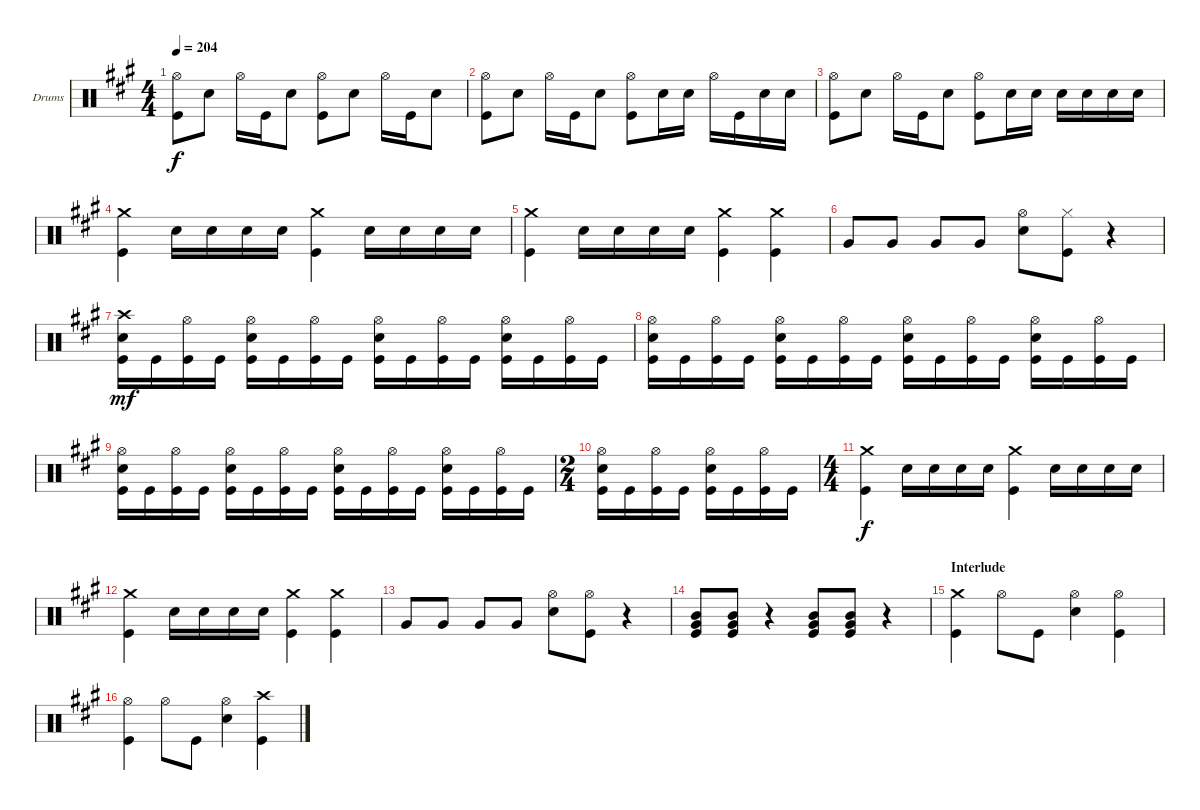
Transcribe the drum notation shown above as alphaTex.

\bracketExtendMode groupsimilarinstruments
\firstSystemTrackNameOrientation horizontal
\otherSystemsTrackNameOrientation horizontal
\track ("Drumkit" "Drums") {instrument percussion}
\staff {score}
\articulation defaults
\ts (4 4)
\tempo 204
\clef neutral
\ks a
("Hi-Hat (open)" "Kick (hit)").8{dy f} "Snare (hit) 2".8 "Hi-Hat (open)".16 "Kick (hit)".16 "Snare (hit) 2".8 ("Hi-Hat (open)" "Kick (hit)").8 "Snare (hit) 2".8 "Hi-Hat (open)".16 "Kick (hit)".16 "Snare (hit) 2".8 |
("Hi-Hat (open)" "Kick (hit)").8 "Snare (hit) 2".8 "Hi-Hat (open)".16 "Kick (hit)".16 "Snare (hit) 2".8 ("Hi-Hat (open)" "Kick (hit)").8 "Snare (hit) 2".16 "Snare (hit) 2".16 "Hi-Hat (open)".16 "Kick (hit)".16 "Snare (hit) 2".16 "Snare (hit) 2".16 |
("Hi-Hat (open)" "Kick (hit)").8 "Snare (hit) 2".8 "Hi-Hat (open)".16 "Kick (hit)".16 "Snare (hit) 2".8 ("Hi-Hat (open)" "Kick (hit)").8 "Snare (hit) 2".16 "Snare (hit) 2".16 "Snare (hit) 2".16 "Snare (hit) 2".16 "Snare (hit) 2".16 "Snare (hit) 2".16 |
("Crash medium (hit)" "Kick (hit)").4 "Snare (hit) 2".16 "Snare (hit) 2".16 "Snare (hit) 2".16 "Snare (hit) 2".16 ("Crash medium (hit)" "Kick (hit)").4 "Snare (hit) 2".16 "Snare (hit) 2".16 "Snare (hit) 2".16 "Snare (hit) 2".16 |
("Crash medium (hit)" "Kick (hit)").4 "Snare (hit) 2".16 "Snare (hit) 2".16 "Snare (hit) 2".16 "Snare (hit) 2".16 ("Crash medium (hit)" "Kick (hit)").4 ("Crash medium (hit)" "Kick (hit)").4 |
"Very Low Tom (hit)".8 "Very Low Tom (hit)".8 "Very Low Tom (hit)".8 "Very Low Tom (hit)".8 ("Hi-Hat (open)" "Snare (hit) 2").8 ("Hi-Hat (closed)" "Kick (hit)").8 r.4 |
("Kick (hit)" "Snare (hit) 2" "Crash high (hit)").16{dy mf} "Kick (hit)".16 ("Kick (hit)" "Hi-Hat (open)").16 "Kick (hit)".16 ("Kick (hit)" "Snare (hit) 2" "Hi-Hat (open)").16 "Kick (hit)".16 ("Kick (hit)" "Hi-Hat (open)").16 "Kick (hit)".16 ("Kick (hit)" "Snare (hit) 2" "Hi-Hat (open)").16 "Kick (hit)".16 ("Kick (hit)" "Hi-Hat (open)").16 "Kick (hit)".16 ("Kick (hit)" "Snare (hit) 2" "Hi-Hat (open)").16 "Kick (hit)".16 ("Kick (hit)" "Hi-Hat (open)").16 "Kick (hit)".16 |
("Kick (hit)" "Snare (hit) 2" "Hi-Hat (open)").16 "Kick (hit)".16 ("Kick (hit)" "Hi-Hat (open)").16 "Kick (hit)".16 ("Kick (hit)" "Snare (hit) 2" "Hi-Hat (open)").16 "Kick (hit)".16 ("Kick (hit)" "Hi-Hat (open)").16 "Kick (hit)".16 ("Kick (hit)" "Snare (hit) 2" "Hi-Hat (open)").16 "Kick (hit)".16 ("Kick (hit)" "Hi-Hat (open)").16 "Kick (hit)".16 ("Kick (hit)" "Snare (hit) 2" "Hi-Hat (open)").16 "Kick (hit)".16 ("Kick (hit)" "Hi-Hat (open)").16 "Kick (hit)".16 |
("Kick (hit)" "Snare (hit) 2" "Hi-Hat (open)").16 "Kick (hit)".16 ("Kick (hit)" "Hi-Hat (open)").16 "Kick (hit)".16 ("Kick (hit)" "Snare (hit) 2" "Hi-Hat (open)").16 "Kick (hit)".16 ("Kick (hit)" "Hi-Hat (open)").16 "Kick (hit)".16 ("Kick (hit)" "Snare (hit) 2" "Hi-Hat (open)").16 "Kick (hit)".16 ("Kick (hit)" "Hi-Hat (open)").16 "Kick (hit)".16 ("Kick (hit)" "Snare (hit) 2" "Hi-Hat (open)").16 "Kick (hit)".16 ("Kick (hit)" "Hi-Hat (open)").16 "Kick (hit)".16 |
\ts (2 4)
("Kick (hit)" "Snare (hit) 2" "Hi-Hat (open)").16 "Kick (hit)".16 ("Kick (hit)" "Hi-Hat (open)").16 "Kick (hit)".16 ("Kick (hit)" "Snare (hit) 2" "Hi-Hat (open)").16 "Kick (hit)".16 ("Kick (hit)" "Hi-Hat (open)").16 "Kick (hit)".16 |
\ts (4 4)
("Crash medium (hit)" "Kick (hit)").4{dy f} "Snare (hit) 2".16 "Snare (hit) 2".16 "Snare (hit) 2".16 "Snare (hit) 2".16 ("Crash medium (hit)" "Kick (hit)").4 "Snare (hit) 2".16 "Snare (hit) 2".16 "Snare (hit) 2".16 "Snare (hit) 2".16 |
("Crash medium (hit)" "Kick (hit)").4 "Snare (hit) 2".16 "Snare (hit) 2".16 "Snare (hit) 2".16 "Snare (hit) 2".16 ("Crash medium (hit)" "Kick (hit)").4 ("Crash medium (hit)" "Kick (hit)").4 |
"Very Low Tom (hit)".8 "Very Low Tom (hit)".8 "Very Low Tom (hit)".8 "Very Low Tom (hit)".8 ("Hi-Hat (open)" "Snare (hit) 2").8 ("Kick (hit)" "Hi-Hat (open)").8 r.4 |
("Mid Tom (hit)" "Very Low Tom (hit)" "Kick (hit)").8 ("Mid Tom (hit)" "Very Low Tom (hit)" "Kick (hit)").8 r.4 ("Mid Tom (hit)" "Very Low Tom (hit)" "Kick (hit)").8 ("Mid Tom (hit)" "Very Low Tom (hit)" "Kick (hit)").8 r.4 |
\section ("" "Interlude")
("Crash medium (hit)" "Kick (hit)").4 "Hi-Hat (open)".8 "Kick (hit)".8 ("Hi-Hat (open)" "Snare (hit) 2").4 ("Hi-Hat (open)" "Kick (hit)").4 |
("Kick (hit)" "Hi-Hat (open)").4 "Hi-Hat (open)".8 "Kick (hit)".8 ("Hi-Hat (open)" "Snare (hit) 2").4 ("Kick (hit)" "Crash high (hit)").4
